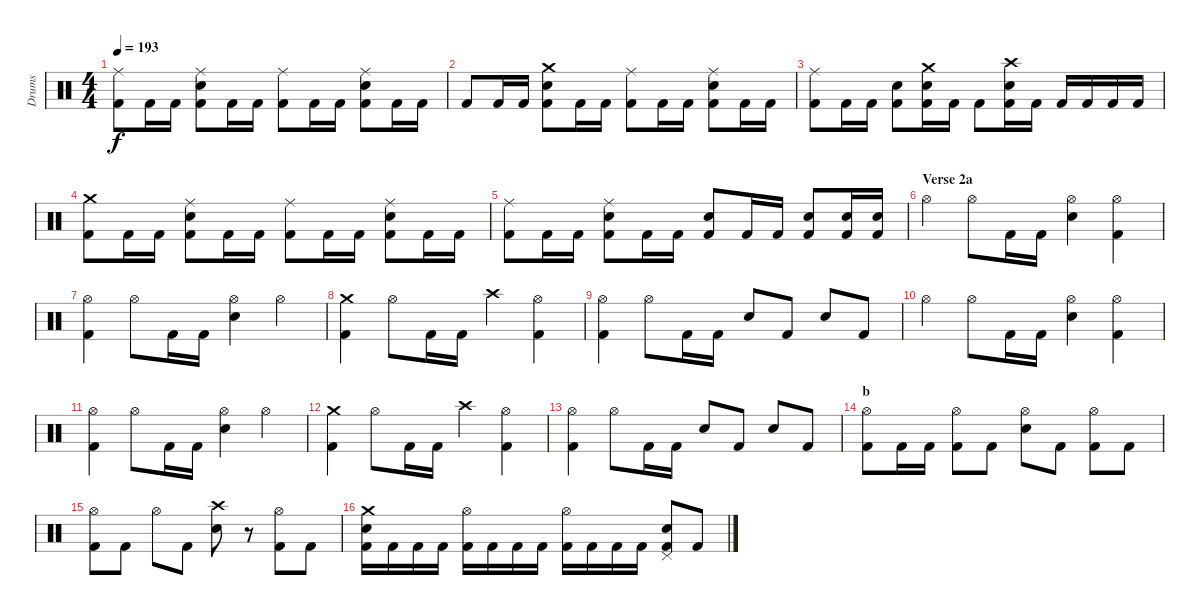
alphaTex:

\track ("Drums" "Drums") {instrument percussion}
\staff {score}
\articulation defaults
\ts (4 4)
\tempo 193
\clef neutral
\ks c
("Ride (middle)" "Kick (hit) 2").8{dy f} "Kick (hit) 2".16 "Kick (hit) 2".16 ("Ride (middle)" "Snare (hit) 2" "Kick (hit) 2").8 "Kick (hit) 2".16 "Kick (hit) 2".16 ("Ride (middle)" "Kick (hit) 2").8 "Kick (hit) 2".16 "Kick (hit) 2".16 ("Ride (middle)" "Snare (hit) 2" "Kick (hit) 2").8 "Kick (hit) 2".16 "Kick (hit) 2".16 |
"Kick (hit) 2".8 "Kick (hit) 2".16 "Kick (hit) 2".16 ("Crash medium (hit)" "Snare (hit) 2" "Kick (hit) 2").8 "Kick (hit) 2".16 "Kick (hit) 2".16 ("Ride (middle)" "Kick (hit) 2").8 "Kick (hit) 2".16 "Kick (hit) 2".16 ("Ride (middle)" "Snare (hit) 2" "Kick (hit) 2").8 "Kick (hit) 2".16 "Kick (hit) 2".16 |
("Ride (middle)" "Kick (hit) 2").8 "Kick (hit) 2".16 "Kick (hit) 2".16 ("Snare (hit) 2" "Kick (hit) 2").8 ("Crash medium (hit)" "Snare (hit) 2" "Kick (hit) 2").16 "Kick (hit) 2".16 "Kick (hit) 2".8 ("Crash high (hit)" "Snare (hit) 2" "Kick (hit) 2").16 "Kick (hit) 2".16 "Kick (hit) 2".16 "Kick (hit) 2".16 "Kick (hit) 2".16 "Kick (hit) 2".16 |
("Crash medium (hit)" "Kick (hit) 2").8 "Kick (hit) 2".16 "Kick (hit) 2".16 ("Ride (middle)" "Snare (hit) 2" "Kick (hit) 2").8 "Kick (hit) 2".16 "Kick (hit) 2".16 ("Ride (middle)" "Kick (hit) 2").8 "Kick (hit) 2".16 "Kick (hit) 2".16 ("Ride (middle)" "Snare (hit) 2" "Kick (hit) 2").8 "Kick (hit) 2".16 "Kick (hit) 2".16 |
("Ride (middle)" "Kick (hit) 2").8 "Kick (hit) 2".16 "Kick (hit) 2".16 ("Ride (middle)" "Snare (hit) 2" "Kick (hit) 2").8 "Kick (hit) 2".16 "Kick (hit) 2".16 ("Snare (hit) 2" "Kick (hit) 2").8 "Kick (hit) 2".16 "Kick (hit) 2".16 ("Snare (hit) 2" "Kick (hit) 2").8 ("Snare (hit) 2" "Kick (hit) 2").16 ("Snare (hit) 2" "Kick (hit) 2").16 |
\section ("" "Verse 2a")
"Hi-Hat (open)".4 "Hi-Hat (open)".8 "Kick (hit) 2".16 "Kick (hit) 2".16 ("Hi-Hat (open)" "Snare (hit) 2").4 ("Hi-Hat (open)" "Kick (hit) 2").4 |
("Hi-Hat (open)" "Kick (hit) 2").4 "Hi-Hat (open)".8 "Kick (hit) 2".16 "Kick (hit) 2".16 ("Hi-Hat (open)" "Snare (hit) 2").4 "Hi-Hat (open)".4 |
("Crash medium (hit)" "Kick (hit) 2").4 "Hi-Hat (open)".8 "Kick (hit) 2".16 "Kick (hit) 2".16 "Crash high (hit)".4 ("Hi-Hat (open)" "Kick (hit) 2").4 |
("Hi-Hat (open)" "Kick (hit) 2").4 "Hi-Hat (open)".8 "Kick (hit) 2".16 "Kick (hit) 2".16 "Snare (hit) 2".8 "Kick (hit) 2".8 "Snare (hit) 2".8 "Kick (hit) 2".8 |
"Hi-Hat (open)".4 "Hi-Hat (open)".8 "Kick (hit) 2".16 "Kick (hit) 2".16 ("Hi-Hat (open)" "Snare (hit) 2").4 ("Hi-Hat (open)" "Kick (hit) 2").4 |
("Hi-Hat (open)" "Kick (hit) 2").4 "Hi-Hat (open)".8 "Kick (hit) 2".16 "Kick (hit) 2".16 ("Hi-Hat (open)" "Snare (hit) 2").4 "Hi-Hat (open)".4 |
("Crash medium (hit)" "Kick (hit) 2").4 "Hi-Hat (open)".8 "Kick (hit) 2".16 "Kick (hit) 2".16 "Crash high (hit)".4 ("Hi-Hat (open)" "Kick (hit) 2").4 |
("Hi-Hat (open)" "Kick (hit) 2").4 "Hi-Hat (open)".8 "Kick (hit) 2".16 "Kick (hit) 2".16 "Snare (hit) 2".8 "Kick (hit) 2".8 "Snare (hit) 2".8 "Kick (hit) 2".8 |
\section ("" "b")
("Hi-Hat (open)" "Kick (hit) 2").8 "Kick (hit) 2".16 "Kick (hit) 2".16 ("Hi-Hat (open)" "Kick (hit) 2").8 "Kick (hit) 2".8 ("Hi-Hat (open)" "Snare (hit) 2").8 "Kick (hit) 2".8 ("Hi-Hat (open)" "Kick (hit) 2").8 "Kick (hit) 2".8 |
("Hi-Hat (open)" "Kick (hit) 2").8 "Kick (hit) 2".8 "Hi-Hat (open)".8 "Kick (hit) 2".8 ("Crash high (hit)" "Snare (hit) 2").8 r.8 ("Hi-Hat (open)" "Kick (hit) 2").8 "Kick (hit) 2".8 |
("Crash medium (hit)" "Snare (hit) 2" "Kick (hit) 2").16 "Kick (hit) 2".16 "Kick (hit) 2".16 "Kick (hit) 2".16 ("Hi-Hat (open)" "Kick (hit) 2").16 "Kick (hit) 2".16 "Kick (hit) 2".16 "Kick (hit) 2".16 ("Hi-Hat (open)" "Kick (hit) 2").16 "Kick (hit) 2".16 "Kick (hit) 2".16 "Kick (hit) 2".16 ("Pedal Hi-Hat (hit)" "Snare (hit) 2" "Kick (hit) 2").8 "Kick (hit) 2".8
